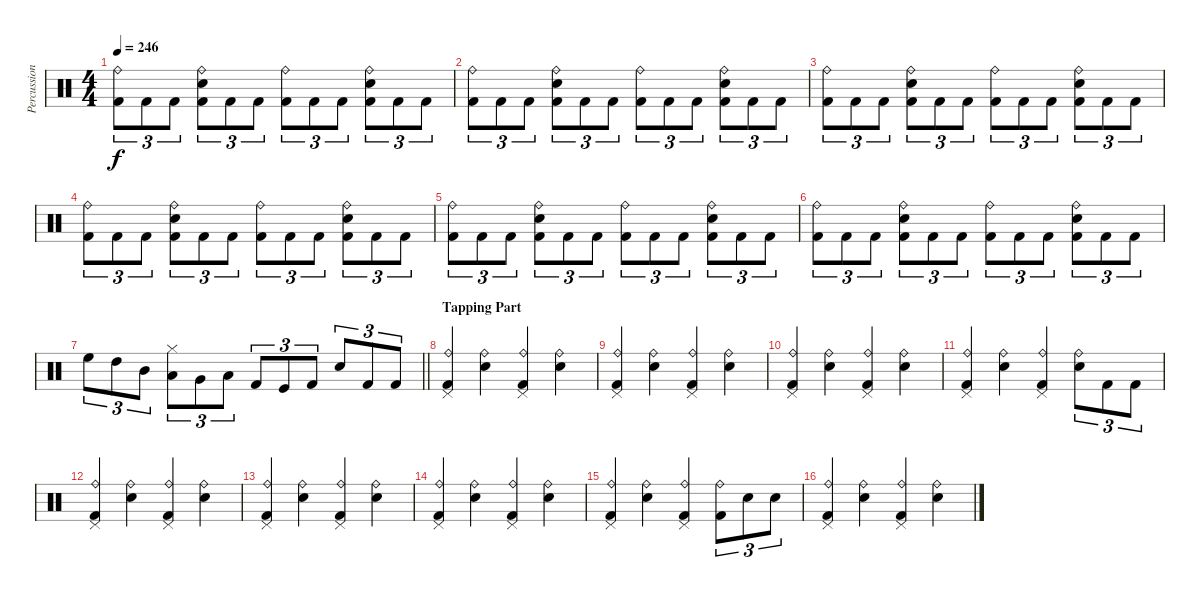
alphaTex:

\track ("Percussions" "Percussion") {instrument percussion}
\staff {score}
\articulation defaults
\ts (4 4)
\tempo 246
\clef neutral
\ks c
("Ride (bell)" "Kick (hit) 2").8{tu (3 2) dy f} "Kick (hit) 2".8{tu (3 2)} "Kick (hit) 2".8{tu (3 2)} ("Ride (bell)" "Electric Snare (hit)" "Kick (hit) 2").8{tu (3 2)} "Kick (hit) 2".8{tu (3 2)} "Kick (hit) 2".8{tu (3 2)} ("Ride (bell)" "Kick (hit) 2").8{tu (3 2)} "Kick (hit) 2".8{tu (3 2)} "Kick (hit) 2".8{tu (3 2)} ("Ride (bell)" "Electric Snare (hit)" "Kick (hit) 2").8{tu (3 2)} "Kick (hit) 2".8{tu (3 2)} "Kick (hit) 2".8{tu (3 2)} |
("Ride (bell)" "Kick (hit) 2").8{tu (3 2)} "Kick (hit) 2".8{tu (3 2)} "Kick (hit) 2".8{tu (3 2)} ("Ride (bell)" "Electric Snare (hit)" "Kick (hit) 2").8{tu (3 2)} "Kick (hit) 2".8{tu (3 2)} "Kick (hit) 2".8{tu (3 2)} ("Ride (bell)" "Kick (hit) 2").8{tu (3 2)} "Kick (hit) 2".8{tu (3 2)} "Kick (hit) 2".8{tu (3 2)} ("Ride (bell)" "Electric Snare (hit)" "Kick (hit) 2").8{tu (3 2)} "Kick (hit) 2".8{tu (3 2)} "Kick (hit) 2".8{tu (3 2)} |
("Ride (bell)" "Kick (hit) 2").8{tu (3 2)} "Kick (hit) 2".8{tu (3 2)} "Kick (hit) 2".8{tu (3 2)} ("Ride (bell)" "Electric Snare (hit)" "Kick (hit) 2").8{tu (3 2)} "Kick (hit) 2".8{tu (3 2)} "Kick (hit) 2".8{tu (3 2)} ("Ride (bell)" "Kick (hit) 2").8{tu (3 2)} "Kick (hit) 2".8{tu (3 2)} "Kick (hit) 2".8{tu (3 2)} ("Ride (bell)" "Electric Snare (hit)" "Kick (hit) 2").8{tu (3 2)} "Kick (hit) 2".8{tu (3 2)} "Kick (hit) 2".8{tu (3 2)} |
("Ride (bell)" "Kick (hit) 2").8{tu (3 2)} "Kick (hit) 2".8{tu (3 2)} "Kick (hit) 2".8{tu (3 2)} ("Ride (bell)" "Electric Snare (hit)" "Kick (hit) 2").8{tu (3 2)} "Kick (hit) 2".8{tu (3 2)} "Kick (hit) 2".8{tu (3 2)} ("Ride (bell)" "Kick (hit) 2").8{tu (3 2)} "Kick (hit) 2".8{tu (3 2)} "Kick (hit) 2".8{tu (3 2)} ("Ride (bell)" "Electric Snare (hit)" "Kick (hit) 2").8{tu (3 2)} "Kick (hit) 2".8{tu (3 2)} "Kick (hit) 2".8{tu (3 2)} |
("Ride (bell)" "Kick (hit) 2").8{tu (3 2)} "Kick (hit) 2".8{tu (3 2)} "Kick (hit) 2".8{tu (3 2)} ("Ride (bell)" "Electric Snare (hit)" "Kick (hit) 2").8{tu (3 2)} "Kick (hit) 2".8{tu (3 2)} "Kick (hit) 2".8{tu (3 2)} ("Ride (bell)" "Kick (hit) 2").8{tu (3 2)} "Kick (hit) 2".8{tu (3 2)} "Kick (hit) 2".8{tu (3 2)} ("Ride (bell)" "Electric Snare (hit)" "Kick (hit) 2").8{tu (3 2)} "Kick (hit) 2".8{tu (3 2)} "Kick (hit) 2".8{tu (3 2)} |
("Ride (bell)" "Kick (hit) 2").8{tu (3 2)} "Kick (hit) 2".8{tu (3 2)} "Kick (hit) 2".8{tu (3 2)} ("Ride (bell)" "Electric Snare (hit)" "Kick (hit) 2").8{tu (3 2)} "Kick (hit) 2".8{tu (3 2)} "Kick (hit) 2".8{tu (3 2)} ("Ride (bell)" "Kick (hit) 2").8{tu (3 2)} "Kick (hit) 2".8{tu (3 2)} "Kick (hit) 2".8{tu (3 2)} ("Ride (bell)" "Electric Snare (hit)" "Kick (hit) 2").8{tu (3 2)} "Kick (hit) 2".8{tu (3 2)} "Kick (hit) 2".8{tu (3 2)} |
\barLineRight lightlight "High Floor Tom (hit)".8{tu (3 2)} "High Tom (hit)".8{tu (3 2)} "Mid Tom (hit)".8{tu (3 2)}
("Hi-Hat (closed)" "Low Tom (hit)").8{tu (3 2)} "Very Low Tom (hit)".8{tu (3 2)} "Low Floor Tom (hit)".8{tu (3 2)} "Kick (hit) 2".8{tu (3 2)} "Kick (hit)".8{tu (3 2)} "Kick (hit) 2".8{tu (3 2)} "Electric Snare (hit)".8{tu (3 2)} "Kick (hit) 2".8{tu (3 2)} "Kick (hit) 2".8{tu (3 2)} |
\section ("" "Tapping Part")
("Ride (bell)" "Pedal Hi-Hat (hit)" "Kick (hit) 2").4 ("Ride (bell)" "Electric Snare (hit)").4 ("Ride (bell)" "Pedal Hi-Hat (hit)" "Kick (hit) 2").4 ("Ride (bell)" "Electric Snare (hit)").4 |
("Ride (bell)" "Pedal Hi-Hat (hit)" "Kick (hit) 2").4 ("Ride (bell)" "Electric Snare (hit)").4 ("Ride (bell)" "Pedal Hi-Hat (hit)" "Kick (hit) 2").4 ("Ride (bell)" "Electric Snare (hit)").4 |
("Ride (bell)" "Pedal Hi-Hat (hit)" "Kick (hit) 2").4 ("Ride (bell)" "Electric Snare (hit)").4 ("Ride (bell)" "Pedal Hi-Hat (hit)" "Kick (hit) 2").4 ("Ride (bell)" "Electric Snare (hit)").4 |
("Ride (bell)" "Pedal Hi-Hat (hit)" "Kick (hit) 2").4 ("Ride (bell)" "Electric Snare (hit)").4 ("Ride (bell)" "Pedal Hi-Hat (hit)" "Kick (hit) 2").4 ("Ride (bell)" "Electric Snare (hit)").8{tu (3 2)} "Kick (hit) 2".8{tu (3 2)} "Kick (hit) 2".8{tu (3 2)} |
("Ride (bell)" "Pedal Hi-Hat (hit)" "Kick (hit) 2").4 ("Ride (bell)" "Electric Snare (hit)").4 ("Ride (bell)" "Pedal Hi-Hat (hit)" "Kick (hit) 2").4 ("Ride (bell)" "Electric Snare (hit)").4 |
("Ride (bell)" "Pedal Hi-Hat (hit)" "Kick (hit) 2").4 ("Ride (bell)" "Electric Snare (hit)").4 ("Ride (bell)" "Pedal Hi-Hat (hit)" "Kick (hit) 2").4 ("Ride (bell)" "Electric Snare (hit)").4 |
("Ride (bell)" "Pedal Hi-Hat (hit)" "Kick (hit) 2").4 ("Ride (bell)" "Electric Snare (hit)").4 ("Ride (bell)" "Pedal Hi-Hat (hit)" "Kick (hit) 2").4 ("Ride (bell)" "Electric Snare (hit)").4 |
("Ride (bell)" "Pedal Hi-Hat (hit)" "Kick (hit) 2").4 ("Ride (bell)" "Electric Snare (hit)").4 ("Ride (bell)" "Pedal Hi-Hat (hit)" "Kick (hit) 2").4 ("Ride (bell)" "Kick (hit) 2").8{tu (3 2)} "Electric Snare (hit)".8{tu (3 2)} "Electric Snare (hit)".8{tu (3 2)} |
("Ride (bell)" "Pedal Hi-Hat (hit)" "Kick (hit) 2").4 ("Ride (bell)" "Electric Snare (hit)").4 ("Ride (bell)" "Pedal Hi-Hat (hit)" "Kick (hit) 2").4 ("Ride (bell)" "Electric Snare (hit)").4
